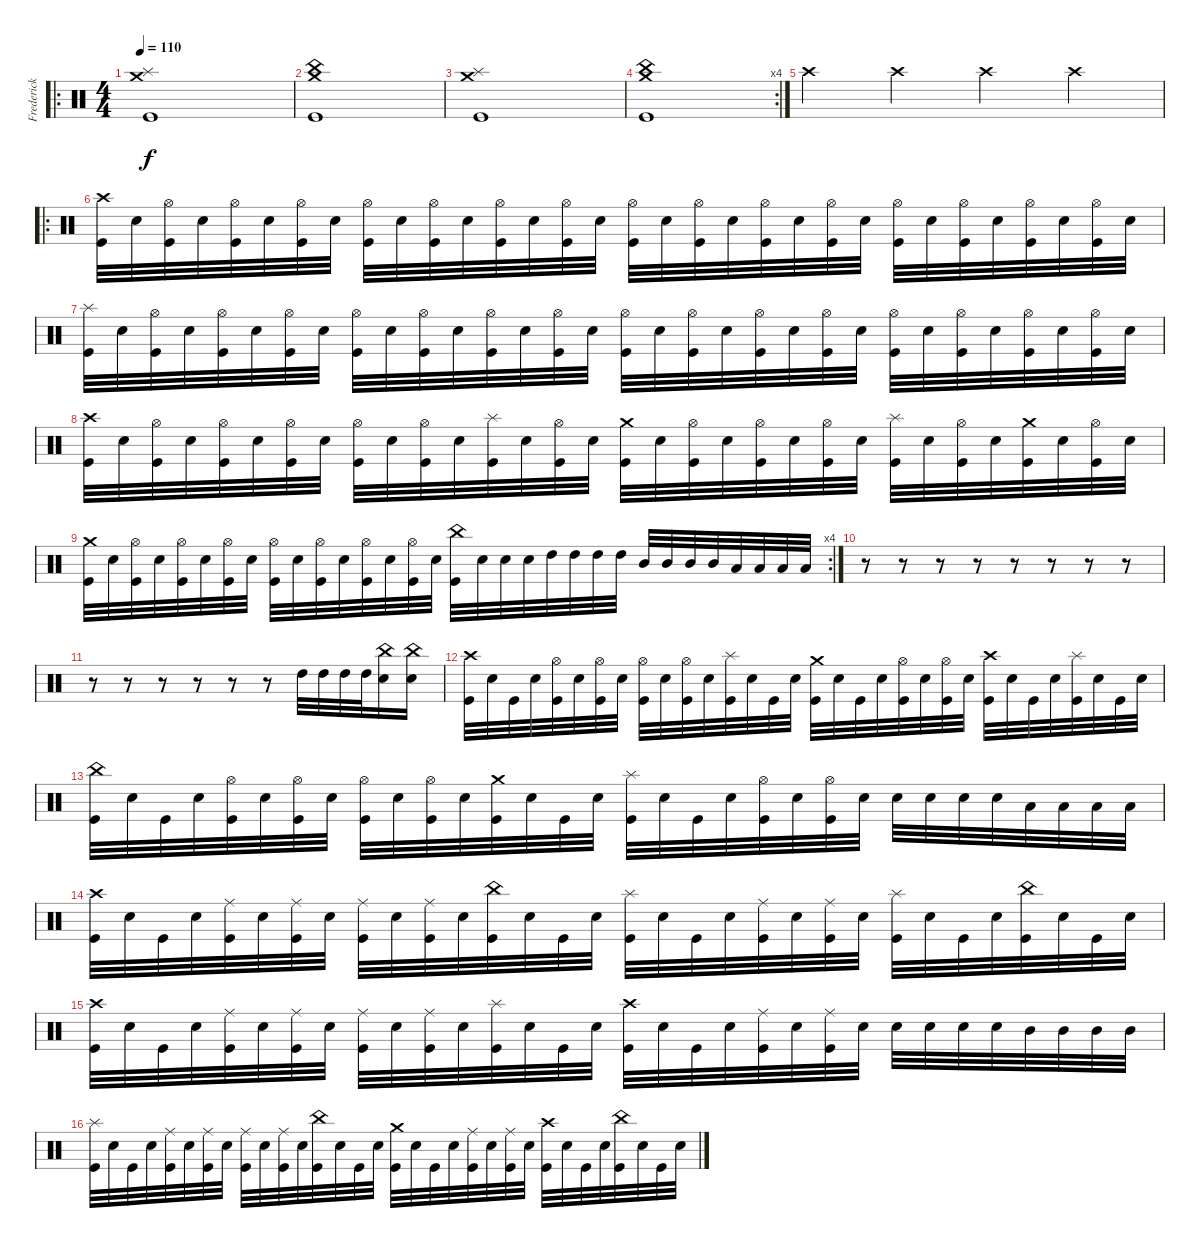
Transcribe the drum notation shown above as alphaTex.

\track ("Frederick" "Frederick") {instrument percussion}
\staff {score}
\articulation defaults
\ro
\ts (4 4)
\tempo 110
\clef neutral
\ks c
("Splash (hit)" "Crash medium (hit)" "Kick (hit)").1{dy f} |
("China (hit)" "Crash medium (hit)" "Kick (hit)").1 |
("Splash (hit)" "Crash medium (hit)" "Kick (hit)").1 |
\rc 4
("China (hit)" "Crash medium (hit)" "Kick (hit)").1 |
"Crash high (hit)".4 "Crash high (hit)".4 "Crash high (hit)".4 "Crash high (hit)".4 |
\ro
("Crash high (hit)" "Kick (hit)").32 "Electric Snare (hit)".32 ("Hi-Hat (open)" "Kick (hit)").32 "Electric Snare (hit)".32 ("Hi-Hat (open)" "Kick (hit)").32 "Electric Snare (hit)".32 ("Hi-Hat (open)" "Kick (hit)").32 "Electric Snare (hit)".32 ("Hi-Hat (open)" "Kick (hit)").32 "Electric Snare (hit)".32 ("Hi-Hat (open)" "Kick (hit)").32 "Electric Snare (hit)".32 ("Hi-Hat (open)" "Kick (hit)").32 "Electric Snare (hit)".32 ("Hi-Hat (open)" "Kick (hit)").32 "Electric Snare (hit)".32 ("Hi-Hat (open)" "Kick (hit)").32 "Electric Snare (hit)".32 ("Hi-Hat (open)" "Kick (hit)").32 "Electric Snare (hit)".32 ("Hi-Hat (open)" "Kick (hit)").32 "Electric Snare (hit)".32 ("Hi-Hat (open)" "Kick (hit)").32 "Electric Snare (hit)".32 ("Hi-Hat (open)" "Kick (hit)").32 "Electric Snare (hit)".32 ("Hi-Hat (open)" "Kick (hit)").32 "Electric Snare (hit)".32 ("Hi-Hat (open)" "Kick (hit)").32 "Electric Snare (hit)".32 ("Hi-Hat (open)" "Kick (hit)").32 "Electric Snare (hit)".32 |
("Splash (hit)" "Kick (hit)").32 "Electric Snare (hit)".32 ("Hi-Hat (open)" "Kick (hit)").32 "Electric Snare (hit)".32 ("Hi-Hat (open)" "Kick (hit)").32 "Electric Snare (hit)".32 ("Hi-Hat (open)" "Kick (hit)").32 "Electric Snare (hit)".32 ("Hi-Hat (open)" "Kick (hit)").32 "Electric Snare (hit)".32 ("Hi-Hat (open)" "Kick (hit)").32 "Electric Snare (hit)".32 ("Hi-Hat (open)" "Kick (hit)").32 "Electric Snare (hit)".32 ("Hi-Hat (open)" "Kick (hit)").32 "Electric Snare (hit)".32 ("Hi-Hat (open)" "Kick (hit)").32 "Electric Snare (hit)".32 ("Hi-Hat (open)" "Kick (hit)").32 "Electric Snare (hit)".32 ("Hi-Hat (open)" "Kick (hit)").32 "Electric Snare (hit)".32 ("Hi-Hat (open)" "Kick (hit)").32 "Electric Snare (hit)".32 ("Hi-Hat (open)" "Kick (hit)").32 "Electric Snare (hit)".32 ("Hi-Hat (open)" "Kick (hit)").32 "Electric Snare (hit)".32 ("Hi-Hat (open)" "Kick (hit)").32 "Electric Snare (hit)".32 ("Hi-Hat (open)" "Kick (hit)").32 "Electric Snare (hit)".32 |
("Crash high (hit)" "Kick (hit)").32 "Electric Snare (hit)".32 ("Hi-Hat (open)" "Kick (hit)").32 "Electric Snare (hit)".32 ("Hi-Hat (open)" "Kick (hit)").32 "Electric Snare (hit)".32 ("Hi-Hat (open)" "Kick (hit)").32 "Electric Snare (hit)".32 ("Hi-Hat (open)" "Kick (hit)").32 "Electric Snare (hit)".32 ("Hi-Hat (open)" "Kick (hit)").32 "Electric Snare (hit)".32 ("Splash (hit)" "Kick (hit)").32 "Electric Snare (hit)".32 ("Hi-Hat (open)" "Kick (hit)").32 "Electric Snare (hit)".32 ("Crash medium (hit)" "Kick (hit)").32 "Electric Snare (hit)".32 ("Hi-Hat (open)" "Kick (hit)").32 "Electric Snare (hit)".32 ("Hi-Hat (open)" "Kick (hit)").32 "Electric Snare (hit)".32 ("Hi-Hat (open)" "Kick (hit)").32 "Electric Snare (hit)".32 ("Splash (hit)" "Kick (hit)").32 "Electric Snare (hit)".32 ("Hi-Hat (open)" "Kick (hit)").32 "Electric Snare (hit)".32 ("Crash medium (hit)" "Kick (hit)").32 "Electric Snare (hit)".32 ("Hi-Hat (open)" "Kick (hit)").32 "Electric Snare (hit)".32 |
\rc 4
("Crash medium (hit)" "Kick (hit)").32 "Electric Snare (hit)".32 ("Hi-Hat (open)" "Kick (hit)").32 "Electric Snare (hit)".32 ("Hi-Hat (open)" "Kick (hit)").32 "Electric Snare (hit)".32 ("Hi-Hat (open)" "Kick (hit)").32 "Electric Snare (hit)".32 ("Hi-Hat (open)" "Kick (hit)").32 "Electric Snare (hit)".32 ("Hi-Hat (open)" "Kick (hit)").32 "Electric Snare (hit)".32 ("Hi-Hat (open)" "Kick (hit)").32 "Electric Snare (hit)".32 ("Hi-Hat (open)" "Kick (hit)").32 "Electric Snare (hit)".32 ("China (hit)" "Kick (hit)").32 "Electric Snare (hit)".32 "Electric Snare (hit)".32 "Electric Snare (hit)".32 "High Tom (hit)".32 "High Tom (hit)".32 "High Tom (hit)".32 "High Tom (hit)".32 "Mid Tom (hit)".32 "Mid Tom (hit)".32 "Mid Tom (hit)".32 "Mid Tom (hit)".32 "Low Tom (hit)".32 "Low Tom (hit)".32 "Low Tom (hit)".32 "Low Tom (hit)".32 |
r.8 r.8 r.8 r.8 r.8 r.8 r.8 r.8 |
r.8 r.8 r.8 r.8 r.8 r.8 "High Tom (hit)".32 "High Tom (hit)".32 "High Tom (hit)".32 "High Tom (hit)".32 ("China (hit)" "Electric Snare (hit)").16 ("China (hit)" "Electric Snare (hit)").16 |
("Crash high (hit)" "Kick (hit)").32 "Electric Snare (hit)".32 "Kick (hit)".32 "Electric Snare (hit)".32 ("Hi-Hat (open)" "Kick (hit)").32 "Electric Snare (hit)".32 ("Hi-Hat (open)" "Kick (hit)").32 "Electric Snare (hit)".32 ("Hi-Hat (open)" "Kick (hit)").32 "Electric Snare (hit)".32 ("Hi-Hat (open)" "Kick (hit)").32 "Electric Snare (hit)".32 ("Splash (hit)" "Kick (hit)").32 "Electric Snare (hit)".32 "Kick (hit)".32 "Electric Snare (hit)".32 ("Crash medium (hit)" "Kick (hit)").32 "Electric Snare (hit)".32 "Kick (hit)".32 "Electric Snare (hit)".32 ("Hi-Hat (open)" "Kick (hit)").32 "Electric Snare (hit)".32 ("Hi-Hat (open)" "Kick (hit)").32 "Electric Snare (hit)".32 ("Crash high (hit)" "Kick (hit)").32 "Electric Snare (hit)".32 "Kick (hit)".32 "Electric Snare (hit)".32 ("Splash (hit)" "Kick (hit)").32 "Electric Snare (hit)".32 "Kick (hit)".32 "Electric Snare (hit)".32 |
("China (hit)" "Kick (hit)").32 "Electric Snare (hit)".32 "Kick (hit)".32 "Electric Snare (hit)".32 ("Hi-Hat (open)" "Kick (hit)").32 "Electric Snare (hit)".32 ("Hi-Hat (open)" "Kick (hit)").32 "Electric Snare (hit)".32 ("Hi-Hat (open)" "Kick (hit)").32 "Electric Snare (hit)".32 ("Hi-Hat (open)" "Kick (hit)").32 "Electric Snare (hit)".32 ("Crash medium (hit)" "Kick (hit)").32 "Electric Snare (hit)".32 "Kick (hit)".32 "Electric Snare (hit)".32 ("Splash (hit)" "Kick (hit)").32 "Electric Snare (hit)".32 "Kick (hit)".32 "Electric Snare (hit)".32 ("Hi-Hat (open)" "Kick (hit)").32 "Electric Snare (hit)".32 ("Hi-Hat (open)" "Kick (hit)").32 "Electric Snare (hit)".32 "Electric Snare (hit)".32 "Electric Snare (hit)".32 "Electric Snare (hit)".32 "Electric Snare (hit)".32 "Low Tom (hit)".32 "Low Tom (hit)".32 "Low Tom (hit)".32 "Low Tom (hit)".32 |
("Crash high (hit)" "Kick (hit)").32 "Electric Snare (hit)".32 "Kick (hit)".32 "Electric Snare (hit)".32 ("Ride (middle)" "Kick (hit)").32 "Electric Snare (hit)".32 ("Ride (middle)" "Kick (hit)").32 "Electric Snare (hit)".32 ("Ride (middle)" "Kick (hit)").32 "Electric Snare (hit)".32 ("Ride (middle)" "Kick (hit)").32 "Electric Snare (hit)".32 ("China (hit)" "Kick (hit)").32 "Electric Snare (hit)".32 "Kick (hit)".32 "Electric Snare (hit)".32 ("Splash (hit)" "Kick (hit)").32 "Electric Snare (hit)".32 "Kick (hit)".32 "Electric Snare (hit)".32 ("Ride (middle)" "Kick (hit)").32 "Electric Snare (hit)".32 ("Ride (middle)" "Kick (hit)").32 "Electric Snare (hit)".32 ("Splash (hit)" "Kick (hit)").32 "Electric Snare (hit)".32 "Kick (hit)".32 "Electric Snare (hit)".32 ("China (hit)" "Kick (hit)").32 "Electric Snare (hit)".32 "Kick (hit)".32 "Electric Snare (hit)".32 |
("Crash high (hit)" "Kick (hit)").32 "Electric Snare (hit)".32 "Kick (hit)".32 "Electric Snare (hit)".32 ("Ride (middle)" "Kick (hit)").32 "Electric Snare (hit)".32 ("Ride (middle)" "Kick (hit)").32 "Electric Snare (hit)".32 ("Ride (middle)" "Kick (hit)").32 "Electric Snare (hit)".32 ("Ride (middle)" "Kick (hit)").32 "Electric Snare (hit)".32 ("Splash (hit)" "Kick (hit)").32 "Electric Snare (hit)".32 "Kick (hit)".32 "Electric Snare (hit)".32 ("Crash high (hit)" "Kick (hit)").32 "Electric Snare (hit)".32 "Kick (hit)".32 "Electric Snare (hit)".32 ("Ride (middle)" "Kick (hit)").32 "Electric Snare (hit)".32 ("Ride (middle)" "Kick (hit)").32 "Electric Snare (hit)".32 "Electric Snare (hit)".32 "Electric Snare (hit)".32 "Electric Snare (hit)".32 "Electric Snare (hit)".32 "Mid Tom (hit)".32 "Mid Tom (hit)".32 "Mid Tom (hit)".32 "Mid Tom (hit)".32 |
("Splash (hit)" "Kick (hit)").32 "Electric Snare (hit)".32 "Kick (hit)".32 "Electric Snare (hit)".32 ("Ride (middle)" "Kick (hit)").32 "Electric Snare (hit)".32 ("Ride (middle)" "Kick (hit)").32 "Electric Snare (hit)".32 ("Ride (middle)" "Kick (hit)").32 "Electric Snare (hit)".32 ("Ride (middle)" "Kick (hit)").32 "Electric Snare (hit)".32 ("China (hit)" "Kick (hit)").32 "Electric Snare (hit)".32 "Kick (hit)".32 "Electric Snare (hit)".32 ("Crash medium (hit)" "Kick (hit)").32 "Electric Snare (hit)".32 "Kick (hit)".32 "Electric Snare (hit)".32 ("Ride (middle)" "Kick (hit)").32 "Electric Snare (hit)".32 ("Ride (middle)" "Kick (hit)").32 "Electric Snare (hit)".32 ("Crash high (hit)" "Kick (hit)").32 "Electric Snare (hit)".32 "Kick (hit)".32 "Electric Snare (hit)".32 ("China (hit)" "Kick (hit)").32 "Electric Snare (hit)".32 "Kick (hit)".32 "Electric Snare (hit)".32
